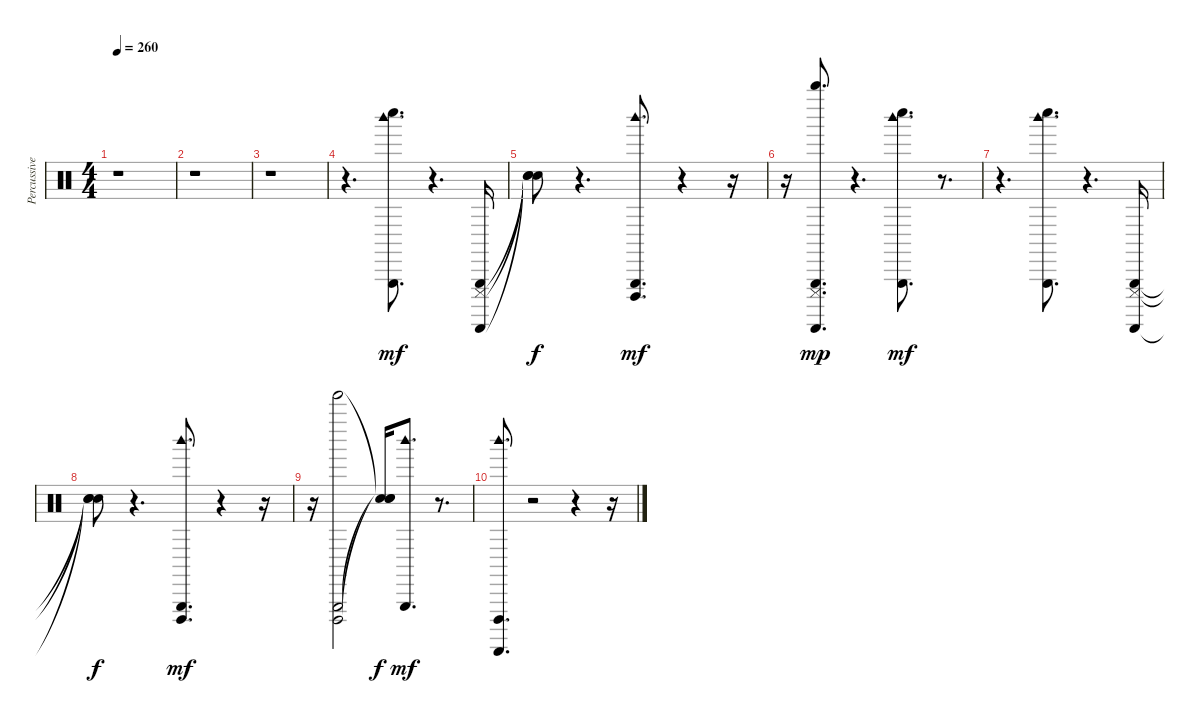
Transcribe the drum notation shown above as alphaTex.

\track ("Percussive Organ" "Percussive") {instrument percussion}
\staff {score}
\articulation defaults
\ts (4 4)
\tempo 260
\clef neutral
\ks c
r.1{dy mf} |
r.1 |
r.1 |
r.4{d} ("Whistle low (hit)" "Triangle (hit)" "Woodblock high (hit)").8{d} r.4{d} ("Guiro (scrap-return)" "Triangle (hit)" "Cuica (mute)").16 |
("Snare (hit)"{t} "Snare (hit)"{t} "Snare (hit)"{t}).8{dy f} r.4{d} ("Woodblock high (hit)" "Triangle (hit)" "Cuica (open)").8{d dy mf} r.4 r.16 |
r.16 ("Whistle high (hit)" "Triangle (hit)" "Cuica (mute)" "Guiro (scrap-return)").8{d dy mp} r.4{d} ("Whistle low (hit)" "Triangle (hit)" "Woodblock high (hit)").8{d dy mf} r.8{d} |
r.4{d} ("Whistle low (hit)" "Triangle (hit)" "Woodblock high (hit)").8{d} r.4{d} ("Guiro (scrap-return)" "Triangle (hit)" "Cuica (mute)").16 |
("Snare (hit)"{t} "Snare (hit)"{t} "Snare (hit)"{t}).8{dy f} r.4{d} ("Woodblock high (hit)" "Triangle (hit)" "Cuica (open)").8{d dy mf} r.4 r.16 |
r.16 ("Cuica (open)" "Tinkle Bell (hit)" "Triangle (hit)").2 ("Snare (hit)"{t} "Snare (hit)"{t} "Snare (hit)"{t}).16{dy f} ("Woodblock high (hit)" "Triangle (hit)").8{d dy mf} r.8{d} |
("Guiro (scrap-return)" "Cuica (open)" "Woodblock high (hit)").8{d} r.2 r.4 r.16
